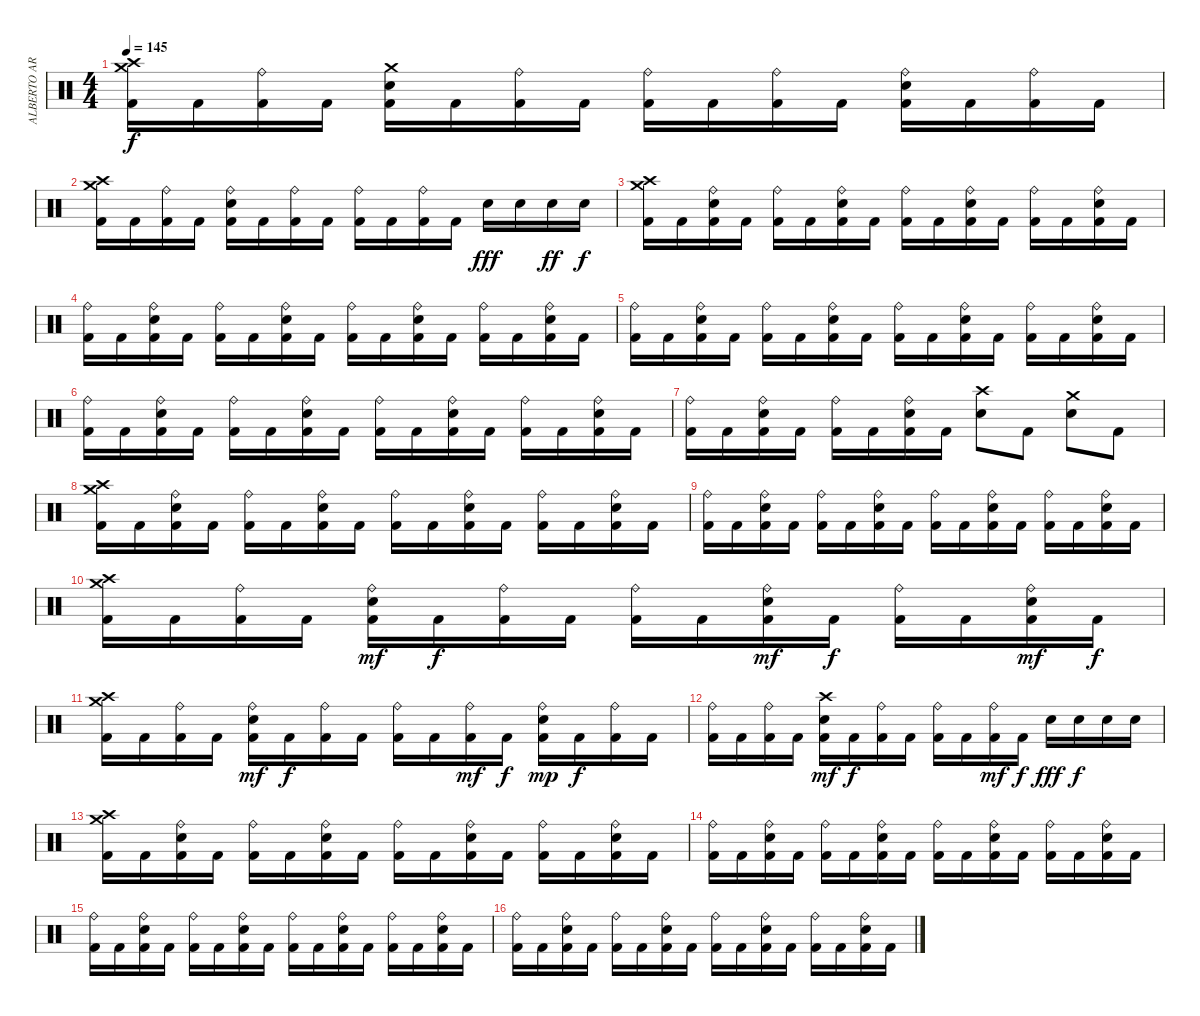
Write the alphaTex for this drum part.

\track ("ALBERTO ARDINES" "ALBERTO AR") {instrument percussion}
\staff {score}
\articulation defaults
\ts (4 4)
\tempo 145
\clef neutral
\ks c
("Crash high (hit)" "Crash medium (hit)" "Kick (hit) 2").16{dy f} "Kick (hit) 2".16 ("Ride (bell)" "Kick (hit) 2").16 "Kick (hit) 2".16 ("Crash medium (hit)" "Electric Snare (hit)" "Kick (hit) 2").16 "Kick (hit) 2".16 ("Ride (bell)" "Kick (hit) 2").16 "Kick (hit) 2".16 ("Ride (bell)" "Kick (hit) 2").16 "Kick (hit) 2".16 ("Ride (bell)" "Kick (hit) 2").16 "Kick (hit) 2".16 ("Ride (bell)" "Electric Snare (hit)" "Kick (hit) 2").16 "Kick (hit) 2".16 ("Ride (bell)" "Kick (hit) 2").16 "Kick (hit) 2".16 |
("Crash high (hit)" "Crash medium (hit)" "Kick (hit) 2").16 "Kick (hit) 2".16 ("Ride (bell)" "Kick (hit) 2").16 "Kick (hit) 2".16 ("Ride (bell)" "Electric Snare (hit)" "Kick (hit) 2").16 "Kick (hit) 2".16 ("Ride (bell)" "Kick (hit) 2").16 "Kick (hit) 2".16 ("Ride (bell)" "Kick (hit) 2").16 "Kick (hit) 2".16 ("Ride (bell)" "Kick (hit) 2").16 "Kick (hit) 2".16 "Electric Snare (hit)".16{dy fff} "Electric Snare (hit)".16 "Electric Snare (hit)".16{dy ff} "Electric Snare (hit)".16{dy f} |
("Crash high (hit)" "Crash medium (hit)" "Kick (hit) 2").16 "Kick (hit) 2".16 ("Ride (bell)" "Electric Snare (hit)" "Kick (hit) 2").16 "Kick (hit) 2".16 ("Ride (bell)" "Kick (hit) 2").16 "Kick (hit) 2".16 ("Ride (bell)" "Electric Snare (hit)" "Kick (hit) 2").16 "Kick (hit) 2".16 ("Ride (bell)" "Kick (hit) 2").16 "Kick (hit) 2".16 ("Ride (bell)" "Electric Snare (hit)" "Kick (hit) 2").16 "Kick (hit) 2".16 ("Ride (bell)" "Kick (hit) 2").16 "Kick (hit) 2".16 ("Ride (bell)" "Electric Snare (hit)" "Kick (hit) 2").16 "Kick (hit) 2".16 |
("Ride (bell)" "Kick (hit) 2").16 "Kick (hit) 2".16 ("Ride (bell)" "Electric Snare (hit)" "Kick (hit) 2").16 "Kick (hit) 2".16 ("Ride (bell)" "Kick (hit) 2").16 "Kick (hit) 2".16 ("Ride (bell)" "Electric Snare (hit)" "Kick (hit) 2").16 "Kick (hit) 2".16 ("Ride (bell)" "Kick (hit) 2").16 "Kick (hit) 2".16 ("Ride (bell)" "Electric Snare (hit)" "Kick (hit) 2").16 "Kick (hit) 2".16 ("Ride (bell)" "Kick (hit) 2").16 "Kick (hit) 2".16 ("Ride (bell)" "Electric Snare (hit)" "Kick (hit) 2").16 "Kick (hit) 2".16 |
("Ride (bell)" "Kick (hit) 2").16 "Kick (hit) 2".16 ("Ride (bell)" "Electric Snare (hit)" "Kick (hit) 2").16 "Kick (hit) 2".16 ("Ride (bell)" "Kick (hit) 2").16 "Kick (hit) 2".16 ("Ride (bell)" "Electric Snare (hit)" "Kick (hit) 2").16 "Kick (hit) 2".16 ("Ride (bell)" "Kick (hit) 2").16 "Kick (hit) 2".16 ("Ride (bell)" "Electric Snare (hit)" "Kick (hit) 2").16 "Kick (hit) 2".16 ("Ride (bell)" "Kick (hit) 2").16 "Kick (hit) 2".16 ("Ride (bell)" "Electric Snare (hit)" "Kick (hit) 2").16 "Kick (hit) 2".16 |
("Ride (bell)" "Kick (hit) 2").16 "Kick (hit) 2".16 ("Ride (bell)" "Electric Snare (hit)" "Kick (hit) 2").16 "Kick (hit) 2".16 ("Ride (bell)" "Kick (hit) 2").16 "Kick (hit) 2".16 ("Ride (bell)" "Electric Snare (hit)" "Kick (hit) 2").16 "Kick (hit) 2".16 ("Ride (bell)" "Kick (hit) 2").16 "Kick (hit) 2".16 ("Ride (bell)" "Electric Snare (hit)" "Kick (hit) 2").16 "Kick (hit) 2".16 ("Ride (bell)" "Kick (hit) 2").16 "Kick (hit) 2".16 ("Ride (bell)" "Electric Snare (hit)" "Kick (hit) 2").16 "Kick (hit) 2".16 |
("Ride (bell)" "Kick (hit) 2").16 "Kick (hit) 2".16 ("Ride (bell)" "Electric Snare (hit)" "Kick (hit) 2").16 "Kick (hit) 2".16 ("Ride (bell)" "Kick (hit) 2").16 "Kick (hit) 2".16 ("Ride (bell)" "Electric Snare (hit)" "Kick (hit) 2").16 "Kick (hit) 2".16 ("Crash high (hit)" "Electric Snare (hit)").8 "Kick (hit) 2".8 ("Crash medium (hit)" "Electric Snare (hit)").8 "Kick (hit) 2".8 |
("Crash high (hit)" "Crash medium (hit)" "Kick (hit) 2").16 "Kick (hit) 2".16 ("Ride (bell)" "Electric Snare (hit)" "Kick (hit) 2").16 "Kick (hit) 2".16 ("Ride (bell)" "Kick (hit) 2").16 "Kick (hit) 2".16 ("Ride (bell)" "Electric Snare (hit)" "Kick (hit) 2").16 "Kick (hit) 2".16 ("Ride (bell)" "Kick (hit) 2").16 "Kick (hit) 2".16 ("Ride (bell)" "Electric Snare (hit)" "Kick (hit) 2").16 "Kick (hit) 2".16 ("Ride (bell)" "Kick (hit) 2").16 "Kick (hit) 2".16 ("Ride (bell)" "Electric Snare (hit)" "Kick (hit) 2").16 "Kick (hit) 2".16 |
("Ride (bell)" "Kick (hit) 2").16 "Kick (hit) 2".16 ("Ride (bell)" "Electric Snare (hit)" "Kick (hit) 2").16 "Kick (hit) 2".16 ("Ride (bell)" "Kick (hit) 2").16 "Kick (hit) 2".16 ("Ride (bell)" "Electric Snare (hit)" "Kick (hit) 2").16 "Kick (hit) 2".16 ("Ride (bell)" "Kick (hit) 2").16 "Kick (hit) 2".16 ("Ride (bell)" "Electric Snare (hit)" "Kick (hit) 2").16 "Kick (hit) 2".16 ("Ride (bell)" "Kick (hit) 2").16 "Kick (hit) 2".16 ("Ride (bell)" "Electric Snare (hit)" "Kick (hit) 2").16 "Kick (hit) 2".16 |
("Crash high (hit)" "Crash medium (hit)" "Kick (hit) 2").16 "Kick (hit) 2".16 ("Ride (bell)" "Kick (hit) 2").16 "Kick (hit) 2".16 ("Ride (bell)" "Electric Snare (hit)" "Kick (hit) 2").16{dy mf} "Kick (hit) 2".16{dy f} ("Ride (bell)" "Kick (hit) 2").16 "Kick (hit) 2".16 ("Ride (bell)" "Kick (hit) 2").16 "Kick (hit) 2".16 ("Ride (bell)" "Electric Snare (hit)" "Kick (hit) 2").16{dy mf} "Kick (hit) 2".16{dy f} ("Ride (bell)" "Kick (hit) 2").16 "Kick (hit) 2".16 ("Ride (bell)" "Electric Snare (hit)" "Kick (hit) 2").16{dy mf} "Kick (hit) 2".16{dy f} |
("Crash high (hit)" "Crash medium (hit)" "Kick (hit) 2").16 "Kick (hit) 2".16 ("Ride (bell)" "Kick (hit) 2").16 "Kick (hit) 2".16 ("Ride (bell)" "Electric Snare (hit)" "Kick (hit) 2").16{dy mf} "Kick (hit) 2".16{dy f} ("Ride (bell)" "Kick (hit) 2").16 "Kick (hit) 2".16 ("Ride (bell)" "Kick (hit) 2").16 "Kick (hit) 2".16 ("Ride (bell)" "Kick (hit) 2").16{dy mf} "Kick (hit) 2".16{dy f} ("Ride (bell)" "Electric Snare (hit)" "Kick (hit) 2").16{dy mp} "Kick (hit) 2".16{dy f} ("Ride (bell)" "Kick (hit) 2").16 "Kick (hit) 2".16 |
("Ride (bell)" "Kick (hit) 2").16 "Kick (hit) 2".16 ("Ride (bell)" "Kick (hit) 2").16 "Kick (hit) 2".16 ("Crash high (hit)" "Electric Snare (hit)" "Kick (hit) 2").16{dy mf} "Kick (hit) 2".16{dy f} ("Ride (bell)" "Kick (hit) 2").16 "Kick (hit) 2".16 ("Ride (bell)" "Kick (hit) 2").16 "Kick (hit) 2".16 ("Ride (bell)" "Kick (hit) 2").16{dy mf} "Kick (hit) 2".16{dy f} "Electric Snare (hit)".16{dy fff} "Electric Snare (hit)".16{dy f} "Electric Snare (hit)".16 "Electric Snare (hit)".16 |
("Crash high (hit)" "Crash medium (hit)" "Kick (hit) 2").16 "Kick (hit) 2".16 ("Ride (bell)" "Electric Snare (hit)" "Kick (hit) 2").16 "Kick (hit) 2".16 ("Ride (bell)" "Kick (hit) 2").16 "Kick (hit) 2".16 ("Ride (bell)" "Electric Snare (hit)" "Kick (hit) 2").16 "Kick (hit) 2".16 ("Ride (bell)" "Kick (hit) 2").16 "Kick (hit) 2".16 ("Ride (bell)" "Electric Snare (hit)" "Kick (hit) 2").16 "Kick (hit) 2".16 ("Ride (bell)" "Kick (hit) 2").16 "Kick (hit) 2".16 ("Ride (bell)" "Electric Snare (hit)" "Kick (hit) 2").16 "Kick (hit) 2".16 |
("Ride (bell)" "Kick (hit) 2").16 "Kick (hit) 2".16 ("Ride (bell)" "Electric Snare (hit)" "Kick (hit) 2").16 "Kick (hit) 2".16 ("Ride (bell)" "Kick (hit) 2").16 "Kick (hit) 2".16 ("Ride (bell)" "Electric Snare (hit)" "Kick (hit) 2").16 "Kick (hit) 2".16 ("Ride (bell)" "Kick (hit) 2").16 "Kick (hit) 2".16 ("Ride (bell)" "Electric Snare (hit)" "Kick (hit) 2").16 "Kick (hit) 2".16 ("Ride (bell)" "Kick (hit) 2").16 "Kick (hit) 2".16 ("Ride (bell)" "Electric Snare (hit)" "Kick (hit) 2").16 "Kick (hit) 2".16 |
("Ride (bell)" "Kick (hit) 2").16 "Kick (hit) 2".16 ("Ride (bell)" "Electric Snare (hit)" "Kick (hit) 2").16 "Kick (hit) 2".16 ("Ride (bell)" "Kick (hit) 2").16 "Kick (hit) 2".16 ("Ride (bell)" "Electric Snare (hit)" "Kick (hit) 2").16 "Kick (hit) 2".16 ("Ride (bell)" "Kick (hit) 2").16 "Kick (hit) 2".16 ("Ride (bell)" "Electric Snare (hit)" "Kick (hit) 2").16 "Kick (hit) 2".16 ("Ride (bell)" "Kick (hit) 2").16 "Kick (hit) 2".16 ("Ride (bell)" "Electric Snare (hit)" "Kick (hit) 2").16 "Kick (hit) 2".16 |
("Ride (bell)" "Kick (hit) 2").16 "Kick (hit) 2".16 ("Ride (bell)" "Electric Snare (hit)" "Kick (hit) 2").16 "Kick (hit) 2".16 ("Ride (bell)" "Kick (hit) 2").16 "Kick (hit) 2".16 ("Ride (bell)" "Electric Snare (hit)" "Kick (hit) 2").16 "Kick (hit) 2".16 ("Ride (bell)" "Kick (hit) 2").16 "Kick (hit) 2".16 ("Ride (bell)" "Electric Snare (hit)" "Kick (hit) 2").16 "Kick (hit) 2".16 ("Ride (bell)" "Kick (hit) 2").16 "Kick (hit) 2".16 ("Ride (bell)" "Electric Snare (hit)" "Kick (hit) 2").16 "Kick (hit) 2".16
